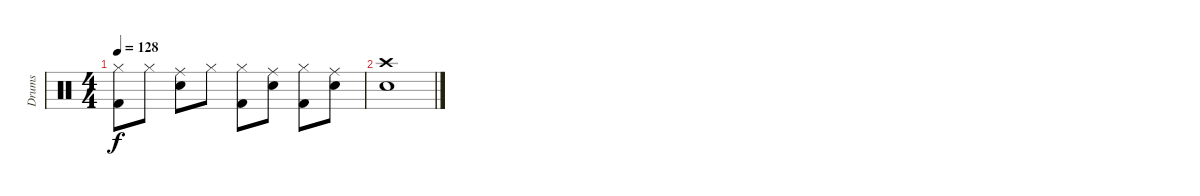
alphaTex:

\track ("Drums" "Drums") {instrument percussion}
\staff {score}
\articulation defaults
\ts (4 4)
\tempo 128
\clef neutral
\ks c
("Hi-Hat (closed)" "Kick (hit) 2").8{dy f} "Hi-Hat (closed)".8 ("Ride (middle)" "Snare (hit) 2").8 "Hi-Hat (closed)".8 ("Hi-Hat (closed)" "Kick (hit) 2").8 ("Ride (middle)" "Snare (hit) 2").8 ("Hi-Hat (closed)" "Kick (hit) 2").8 ("Ride (middle)" "Snare (hit) 2").8 |
("Crash high (hit)" "Snare (hit) 2").1
